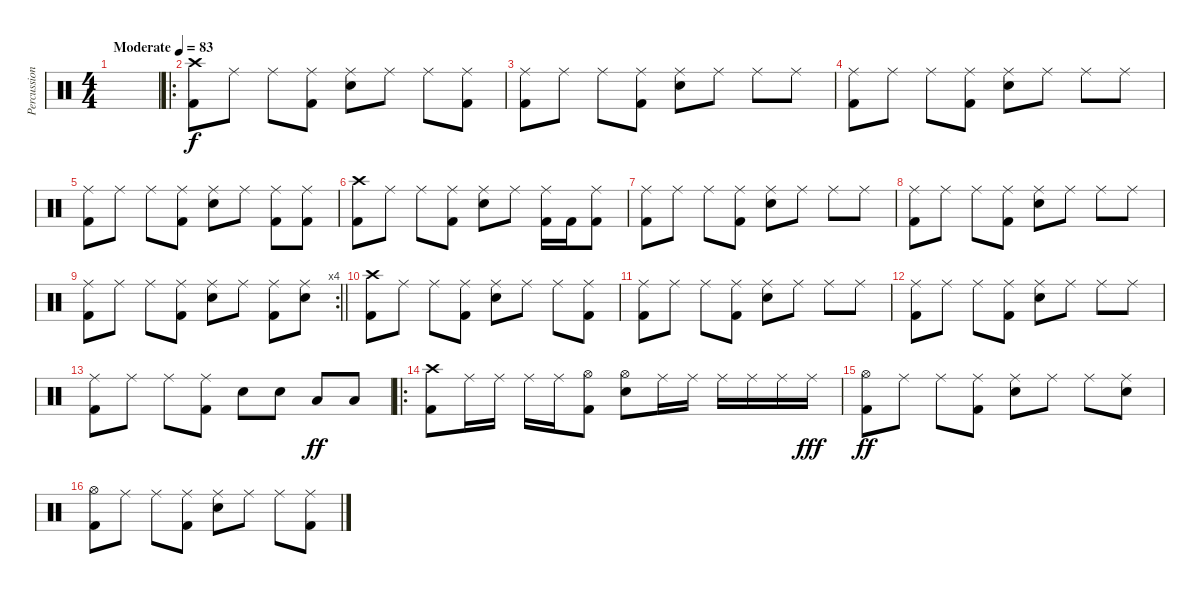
\track ("Percussions" "Percussion") {instrument percussion}
\staff {score}
\articulation defaults
\ts (4 4)
\tempo (83 "Moderate")
\clef neutral
\ks c
|
\ro
("Crash high (hit)" "Kick (hit) 2").8 "Ride (middle)".8 "Ride (middle)".8 ("Ride (middle)" "Kick (hit) 2").8 ("Ride (middle)" "Electric Snare (hit)").8 "Ride (middle)".8 "Ride (middle)".8 ("Ride (middle)" "Kick (hit) 2").8 |
("Ride (middle)" "Kick (hit) 2").8 "Ride (middle)".8 "Ride (middle)".8 ("Ride (middle)" "Kick (hit) 2").8 ("Ride (middle)" "Electric Snare (hit)").8 "Ride (middle)".8 "Ride (middle)".8 "Ride (middle)".8 |
("Ride (middle)" "Kick (hit) 2").8 "Ride (middle)".8 "Ride (middle)".8 ("Ride (middle)" "Kick (hit) 2").8 ("Ride (middle)" "Electric Snare (hit)").8 "Ride (middle)".8 "Ride (middle)".8 "Ride (middle)".8 |
("Ride (middle)" "Kick (hit) 2").8 "Ride (middle)".8 "Ride (middle)".8 ("Ride (middle)" "Kick (hit) 2").8 ("Ride (middle)" "Electric Snare (hit)").8 "Ride (middle)".8 ("Ride (middle)" "Kick (hit) 2").8 ("Ride (middle)" "Kick (hit) 2").8 |
("Crash high (hit)" "Kick (hit) 2").8 "Ride (middle)".8 "Ride (middle)".8 ("Ride (middle)" "Kick (hit) 2").8 ("Ride (middle)" "Electric Snare (hit)").8 "Ride (middle)".8 ("Ride (middle)" "Kick (hit) 2").16 "Kick (hit) 2".16 ("Ride (middle)" "Kick (hit) 2").8 |
("Ride (middle)" "Kick (hit) 2").8 "Ride (middle)".8 "Ride (middle)".8 ("Ride (middle)" "Kick (hit) 2").8 ("Ride (middle)" "Electric Snare (hit)").8 "Ride (middle)".8 "Ride (middle)".8 "Ride (middle)".8 |
("Ride (middle)" "Kick (hit) 2").8 "Ride (middle)".8 "Ride (middle)".8 ("Ride (middle)" "Kick (hit) 2").8 ("Ride (middle)" "Electric Snare (hit)").8 "Ride (middle)".8 "Ride (middle)".8 "Ride (middle)".8 |
\rc 4
\barLineRight lightlight
("Ride (middle)" "Kick (hit) 2").8 "Ride (middle)".8 "Ride (middle)".8 ("Ride (middle)" "Kick (hit) 2").8 ("Ride (middle)" "Electric Snare (hit)").8 "Ride (middle)".8 ("Ride (middle)" "Kick (hit) 2").8 ("Ride (middle)" "Electric Snare (hit)").8 |
("Crash high (hit)" "Kick (hit) 2").8 "Ride (middle)".8 "Ride (middle)".8 ("Ride (middle)" "Kick (hit) 2").8 ("Ride (middle)" "Electric Snare (hit)").8 "Ride (middle)".8 "Ride (middle)".8 ("Ride (middle)" "Kick (hit) 2").8 |
("Ride (middle)" "Kick (hit) 2").8 "Ride (middle)".8 "Ride (middle)".8 ("Ride (middle)" "Kick (hit) 2").8 ("Ride (middle)" "Electric Snare (hit)").8 "Ride (middle)".8 "Ride (middle)".8 "Ride (middle)".8 |
("Ride (middle)" "Kick (hit) 2").8 "Ride (middle)".8 "Ride (middle)".8 ("Ride (middle)" "Kick (hit) 2").8 ("Ride (middle)" "Electric Snare (hit)").8 "Ride (middle)".8 "Ride (middle)".8 "Ride (middle)".8 |
("Ride (middle)" "Kick (hit) 2").8 "Ride (middle)".8 "Ride (middle)".8 ("Ride (middle)" "Kick (hit) 2").8 "Electric Snare (hit)".8 "Electric Snare (hit)".8{dy f} "Low Tom (hit)".8{dy ff} "Low Tom (hit)".8 |
\ro
("Crash high (hit)" "Kick (hit) 2").8 "Ride (middle)".16 "Ride (middle)".16 "Ride (middle)".16 "Ride (middle)".16 ("Hi-Hat (open)" "Kick (hit) 2").8 ("Hi-Hat (open)" "Electric Snare (hit)").8 "Ride (middle)".16 "Ride (middle)".16 "Ride (middle)".16 "Ride (middle)".16 "Ride (middle)".16 "Ride (middle)".16{dy fff} |
("Hi-Hat (open)" "Kick (hit) 2").8{dy ff} "Ride (middle)".8 "Ride (middle)".8 ("Ride (middle)" "Kick (hit) 2").8 ("Ride (middle)" "Electric Snare (hit)").8 "Ride (middle)".8 "Ride (middle)".8 ("Ride (middle)" "Electric Snare (hit)").8 |
("Hi-Hat (open)" "Kick (hit) 2").8 "Ride (middle)".8 "Ride (middle)".8 ("Ride (middle)" "Kick (hit) 2").8 ("Ride (middle)" "Electric Snare (hit)").8 "Ride (middle)".8 "Ride (middle)".8 ("Ride (middle)" "Kick (hit) 2").8
